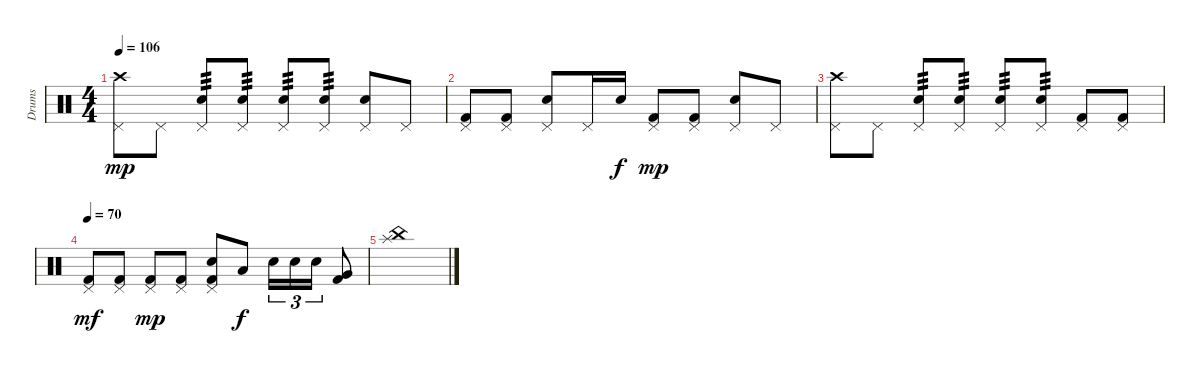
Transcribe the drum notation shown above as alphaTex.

\track ("Drums" "Drums") {instrument percussion}
\staff {score}
\articulation defaults
\ts (4 4)
\tempo 106
\clef neutral
\ks c
("Crash high (hit)" "Pedal Hi-Hat (hit)").8{dy mp} "Pedal Hi-Hat (hit)".8 ("Snare (hit) 2" "Pedal Hi-Hat (hit)").8{tp 3} ("Snare (hit) 2" "Pedal Hi-Hat (hit)").8{tp 3} ("Snare (hit) 2" "Pedal Hi-Hat (hit)").8{tp 3} ("Snare (hit) 2" "Pedal Hi-Hat (hit)").8{tp 3} ("Snare (hit) 2" "Pedal Hi-Hat (hit)").8 "Pedal Hi-Hat (hit)".8 |
("Pedal Hi-Hat (hit)" "Kick (hit) 2").8 ("Pedal Hi-Hat (hit)" "Kick (hit) 2").8 ("Snare (hit) 2" "Pedal Hi-Hat (hit)").8 "Pedal Hi-Hat (hit)".16 "Snare (hit) 2".16{dy f} ("Pedal Hi-Hat (hit)" "Kick (hit) 2").8{dy mp} ("Pedal Hi-Hat (hit)" "Kick (hit) 2").8 ("Snare (hit) 2" "Pedal Hi-Hat (hit)").8 "Pedal Hi-Hat (hit)".8 |
("Crash high (hit)" "Pedal Hi-Hat (hit)").8 "Pedal Hi-Hat (hit)".8 ("Snare (hit) 2" "Pedal Hi-Hat (hit)").8{tp 3} ("Snare (hit) 2" "Pedal Hi-Hat (hit)").8{tp 3} ("Snare (hit) 2" "Pedal Hi-Hat (hit)").8{tp 3} ("Snare (hit) 2" "Pedal Hi-Hat (hit)").8{tp 3} ("Pedal Hi-Hat (hit)" "Kick (hit) 2").8 ("Pedal Hi-Hat (hit)" "Kick (hit) 2").8 |
\tempo 70
("Pedal Hi-Hat (hit)" "Kick (hit) 2").8{dy mf} ("Pedal Hi-Hat (hit)" "Kick (hit) 2").8 ("Pedal Hi-Hat (hit)" "Kick (hit) 2").8{dy mp} ("Pedal Hi-Hat (hit)" "Kick (hit) 2").8 ("Snare (hit) 2" "Pedal Hi-Hat (hit)" "Kick (hit) 2").8 "Low Tom (hit)".8{dy f} "Snare (hit) 2".16{tu (3 2)} "Snare (hit) 2".16{tu (3 2)} "Electric Snare (hit)".16{tu (3 2)} ("Very Low Tom (hit)" "Kick (hit) 2").8 |
("Splash (hit)" "China (hit)").1
